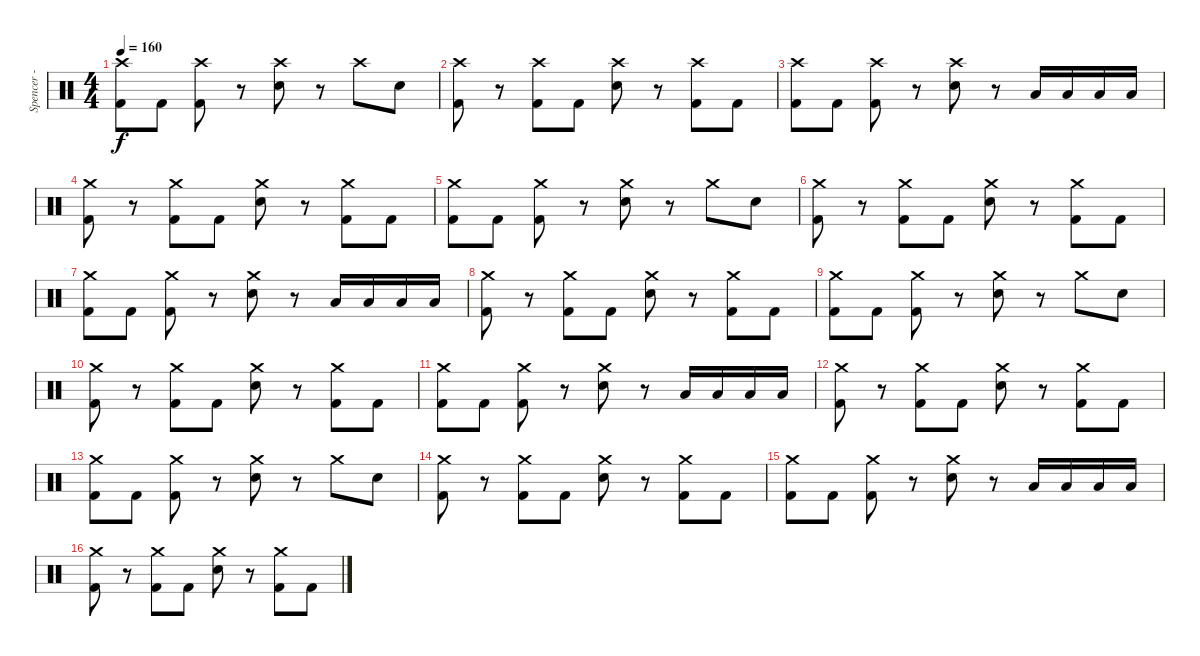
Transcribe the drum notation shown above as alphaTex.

\track ("Spencer - Drums" "Spencer - ") {instrument percussion}
\staff {score}
\articulation defaults
\ts (4 4)
\tempo 160
\clef neutral
\ks c
("Crash high (hit)" "Kick (hit) 2").8{dy f} "Kick (hit) 2".8 ("Crash high (hit)" "Kick (hit) 2").8 r.8 ("Crash high (hit)" "Electric Snare (hit)").8 r.8 "Crash high (hit)".8 "Electric Snare (hit)".8 |
("Crash high (hit)" "Kick (hit) 2").8 r.8 ("Crash high (hit)" "Kick (hit) 2").8 "Kick (hit) 2".8 ("Crash high (hit)" "Electric Snare (hit)").8 r.8 ("Crash high (hit)" "Kick (hit) 2").8 "Kick (hit) 2".8 |
("Crash high (hit)" "Kick (hit) 2").8 "Kick (hit) 2".8 ("Crash high (hit)" "Kick (hit) 2").8 r.8 ("Crash high (hit)" "Electric Snare (hit)").8 r.8 "Low Tom (hit)".16 "Low Tom (hit)".16 "Low Tom (hit)".16 "Low Tom (hit)".16 |
("Crash medium (hit)" "Kick (hit) 2").8 r.8 ("Crash medium (hit)" "Kick (hit) 2").8 "Kick (hit) 2".8 ("Crash medium (hit)" "Electric Snare (hit)").8 r.8 ("Crash medium (hit)" "Kick (hit) 2").8 "Kick (hit) 2".8 |
("Crash medium (hit)" "Kick (hit) 2").8 "Kick (hit) 2".8 ("Crash medium (hit)" "Kick (hit) 2").8 r.8 ("Crash medium (hit)" "Electric Snare (hit)").8 r.8 "Crash medium (hit)".8 "Electric Snare (hit)".8 |
("Crash medium (hit)" "Kick (hit) 2").8 r.8 ("Crash medium (hit)" "Kick (hit) 2").8 "Kick (hit) 2".8 ("Crash medium (hit)" "Electric Snare (hit)").8 r.8 ("Crash medium (hit)" "Kick (hit) 2").8 "Kick (hit) 2".8 |
("Crash medium (hit)" "Kick (hit) 2").8 "Kick (hit) 2".8 ("Crash medium (hit)" "Kick (hit) 2").8 r.8 ("Crash medium (hit)" "Electric Snare (hit)").8 r.8 "Low Tom (hit)".16 "Low Tom (hit)".16 "Low Tom (hit)".16 "Low Tom (hit)".16 |
("Crash medium (hit)" "Kick (hit) 2").8 r.8 ("Crash medium (hit)" "Kick (hit) 2").8 "Kick (hit) 2".8 ("Crash medium (hit)" "Electric Snare (hit)").8 r.8 ("Crash medium (hit)" "Kick (hit) 2").8 "Kick (hit) 2".8 |
("Crash medium (hit)" "Kick (hit) 2").8 "Kick (hit) 2".8 ("Crash medium (hit)" "Kick (hit) 2").8 r.8 ("Crash medium (hit)" "Electric Snare (hit)").8 r.8 "Crash medium (hit)".8 "Electric Snare (hit)".8 |
("Crash medium (hit)" "Kick (hit) 2").8 r.8 ("Crash medium (hit)" "Kick (hit) 2").8 "Kick (hit) 2".8 ("Crash medium (hit)" "Electric Snare (hit)").8 r.8 ("Crash medium (hit)" "Kick (hit) 2").8 "Kick (hit) 2".8 |
("Crash medium (hit)" "Kick (hit) 2").8 "Kick (hit) 2".8 ("Crash medium (hit)" "Kick (hit) 2").8 r.8 ("Crash medium (hit)" "Electric Snare (hit)").8 r.8 "Low Tom (hit)".16 "Low Tom (hit)".16 "Low Tom (hit)".16 "Low Tom (hit)".16 |
("Crash medium (hit)" "Kick (hit) 2").8 r.8 ("Crash medium (hit)" "Kick (hit) 2").8 "Kick (hit) 2".8 ("Crash medium (hit)" "Electric Snare (hit)").8 r.8 ("Crash medium (hit)" "Kick (hit) 2").8 "Kick (hit) 2".8 |
("Crash medium (hit)" "Kick (hit) 2").8 "Kick (hit) 2".8 ("Crash medium (hit)" "Kick (hit) 2").8 r.8 ("Crash medium (hit)" "Electric Snare (hit)").8 r.8 "Crash medium (hit)".8 "Electric Snare (hit)".8 |
("Crash medium (hit)" "Kick (hit) 2").8 r.8 ("Crash medium (hit)" "Kick (hit) 2").8 "Kick (hit) 2".8 ("Crash medium (hit)" "Electric Snare (hit)").8 r.8 ("Crash medium (hit)" "Kick (hit) 2").8 "Kick (hit) 2".8 |
("Crash medium (hit)" "Kick (hit) 2").8 "Kick (hit) 2".8 ("Crash medium (hit)" "Kick (hit) 2").8 r.8 ("Crash medium (hit)" "Electric Snare (hit)").8 r.8 "Low Tom (hit)".16 "Low Tom (hit)".16 "Low Tom (hit)".16 "Low Tom (hit)".16 |
("Crash medium (hit)" "Kick (hit) 2").8 r.8 ("Crash medium (hit)" "Kick (hit) 2").8 "Kick (hit) 2".8 ("Crash medium (hit)" "Electric Snare (hit)").8 r.8 ("Crash medium (hit)" "Kick (hit) 2").8 "Kick (hit) 2".8
